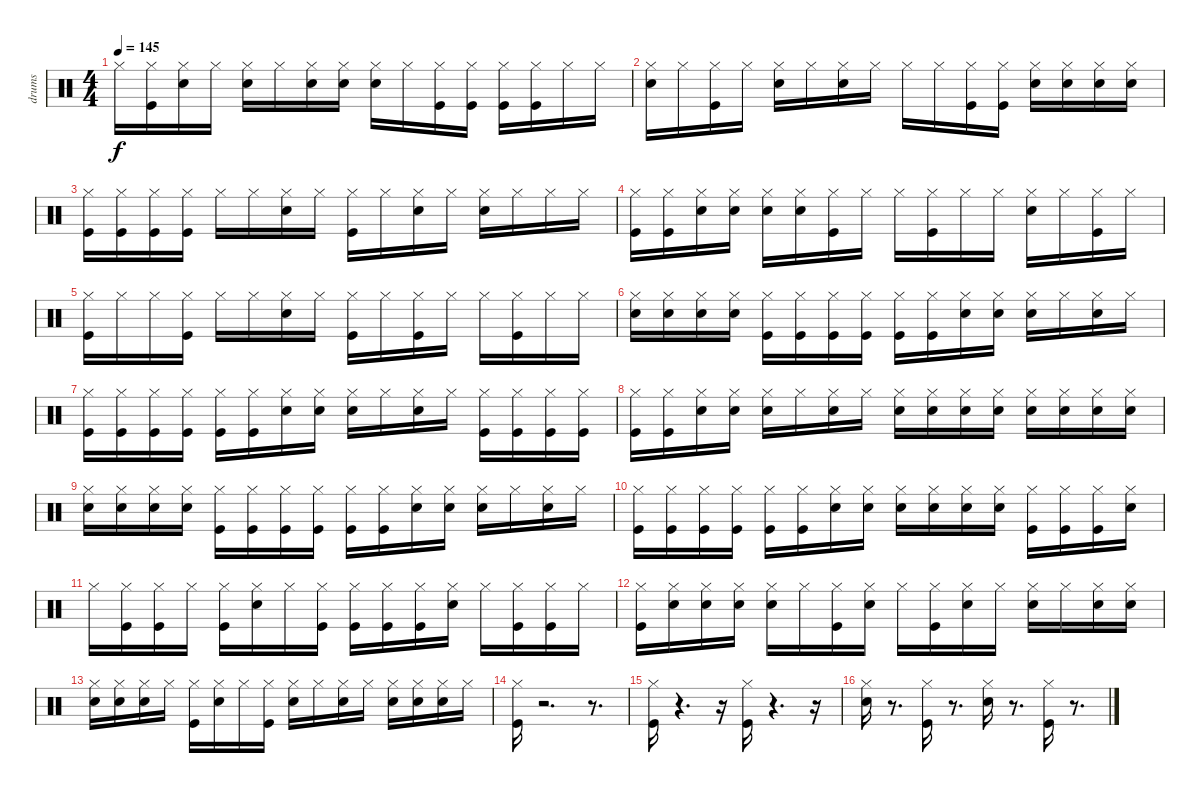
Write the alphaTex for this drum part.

\track ("drums" "drums") {instrument percussion}
\staff {score}
\articulation defaults
\ts (4 4)
\tempo 145
\clef neutral
\ks c "Hi-Hat (closed)".16{dy f}
("Kick (hit)" "Hi-Hat (closed)").16 ("Snare (hit) 2" "Hi-Hat (closed)").16 "Hi-Hat (closed)".16 ("Snare (hit) 2" "Hi-Hat (closed)").16 "Hi-Hat (closed)".16 ("Snare (hit) 2" "Hi-Hat (closed)").16 ("Snare (hit) 2" "Hi-Hat (closed)").16 ("Snare (hit) 2" "Hi-Hat (closed)").16 "Hi-Hat (closed)".16 ("Kick (hit)" "Hi-Hat (closed)").16 ("Kick (hit)" "Hi-Hat (closed)").16 ("Kick (hit)" "Hi-Hat (closed)").16 ("Kick (hit)" "Hi-Hat (closed)").16 "Hi-Hat (closed)".16 "Hi-Hat (closed)".16 |
("Snare (hit) 2" "Hi-Hat (closed)").16 "Hi-Hat (closed)".16 ("Kick (hit)" "Hi-Hat (closed)").16 "Hi-Hat (closed)".16 ("Snare (hit) 2" "Hi-Hat (closed)").16 "Hi-Hat (closed)".16 ("Snare (hit) 2" "Hi-Hat (closed)").16 "Hi-Hat (closed)".16 "Hi-Hat (closed)".16 "Hi-Hat (closed)".16 ("Kick (hit)" "Hi-Hat (closed)").16 ("Kick (hit)" "Hi-Hat (closed)").16 ("Snare (hit) 2" "Hi-Hat (closed)").16 ("Snare (hit) 2" "Hi-Hat (closed)").16 ("Snare (hit) 2" "Hi-Hat (closed)").16 ("Snare (hit) 2" "Hi-Hat (closed)").16 |
("Kick (hit)" "Hi-Hat (closed)").16 ("Kick (hit)" "Hi-Hat (closed)").16 ("Kick (hit)" "Hi-Hat (closed)").16 ("Kick (hit)" "Hi-Hat (closed)").16 "Hi-Hat (closed)".16 "Hi-Hat (closed)".16 ("Snare (hit) 2" "Hi-Hat (closed)").16 "Hi-Hat (closed)".16 ("Kick (hit)" "Hi-Hat (closed)").16 "Hi-Hat (closed)".16 ("Snare (hit) 2" "Hi-Hat (closed)").16 "Hi-Hat (closed)".16 ("Snare (hit) 2" "Hi-Hat (closed)").16 "Hi-Hat (closed)".16 "Hi-Hat (closed)".16 "Hi-Hat (closed)".16 |
("Kick (hit)" "Hi-Hat (closed)").16 ("Kick (hit)" "Hi-Hat (closed)").16 ("Snare (hit) 2" "Hi-Hat (closed)").16 ("Snare (hit) 2" "Hi-Hat (closed)").16 ("Snare (hit) 2" "Hi-Hat (closed)").16 ("Snare (hit) 2" "Hi-Hat (closed)").16 ("Hi-Hat (closed)" "Kick (hit)").16 "Hi-Hat (closed)".16 "Hi-Hat (closed)".16 ("Kick (hit)" "Hi-Hat (closed)").16 "Hi-Hat (closed)".16 "Hi-Hat (closed)".16 ("Snare (hit) 2" "Hi-Hat (closed)").16 "Hi-Hat (closed)".16 ("Kick (hit)" "Hi-Hat (closed)").16 "Hi-Hat (closed)".16 |
("Hi-Hat (closed)" "Kick (hit)").16 "Hi-Hat (closed)".16 "Hi-Hat (closed)".16 ("Kick (hit)" "Hi-Hat (closed)").16 "Hi-Hat (closed)".16 "Hi-Hat (closed)".16 ("Snare (hit) 2" "Hi-Hat (closed)").16 "Hi-Hat (closed)".16 ("Kick (hit)" "Hi-Hat (closed)").16 "Hi-Hat (closed)".16 ("Hi-Hat (closed)" "Kick (hit)").16 "Hi-Hat (closed)".16 "Hi-Hat (closed)".16 ("Kick (hit)" "Hi-Hat (closed)").16 "Hi-Hat (closed)".16 "Hi-Hat (closed)".16 |
("Hi-Hat (closed)" "Snare (hit) 2").16 ("Hi-Hat (closed)" "Snare (hit) 2").16 ("Hi-Hat (closed)" "Snare (hit) 2").16 ("Hi-Hat (closed)" "Snare (hit) 2").16 ("Hi-Hat (closed)" "Kick (hit)").16 ("Kick (hit)" "Hi-Hat (closed)").16 ("Kick (hit)" "Hi-Hat (closed)").16 ("Kick (hit)" "Hi-Hat (closed)").16 ("Kick (hit)" "Hi-Hat (closed)").16 ("Kick (hit)" "Hi-Hat (closed)").16 ("Snare (hit) 2" "Hi-Hat (closed)").16 ("Snare (hit) 2" "Hi-Hat (closed)").16 ("Snare (hit) 2" "Hi-Hat (closed)").16 "Hi-Hat (closed)".16 ("Snare (hit) 2" "Hi-Hat (closed)").16 "Hi-Hat (closed)".16 |
("Hi-Hat (closed)" "Kick (hit)").16 ("Kick (hit)" "Hi-Hat (closed)").16 ("Kick (hit)" "Hi-Hat (closed)").16 ("Kick (hit)" "Hi-Hat (closed)").16 ("Kick (hit)" "Hi-Hat (closed)").16 ("Kick (hit)" "Hi-Hat (closed)").16 ("Snare (hit) 2" "Hi-Hat (closed)").16 ("Snare (hit) 2" "Hi-Hat (closed)").16 ("Snare (hit) 2" "Hi-Hat (closed)").16 "Hi-Hat (closed)".16 ("Snare (hit) 2" "Hi-Hat (closed)").16 "Hi-Hat (closed)".16 ("Hi-Hat (closed)" "Kick (hit)").16 ("Kick (hit)" "Hi-Hat (closed)").16 ("Kick (hit)" "Hi-Hat (closed)").16 ("Kick (hit)" "Hi-Hat (closed)").16 |
("Kick (hit)" "Hi-Hat (closed)").16 ("Kick (hit)" "Hi-Hat (closed)").16 ("Snare (hit) 2" "Hi-Hat (closed)").16 ("Snare (hit) 2" "Hi-Hat (closed)").16 ("Snare (hit) 2" "Hi-Hat (closed)").16 "Hi-Hat (closed)".16 ("Snare (hit) 2" "Hi-Hat (closed)").16 "Hi-Hat (closed)".16 ("Hi-Hat (closed)" "Snare (hit) 2").16 ("Hi-Hat (closed)" "Snare (hit) 2").16 ("Hi-Hat (closed)" "Snare (hit) 2").16 ("Hi-Hat (closed)" "Snare (hit) 2").16 ("Hi-Hat (closed)" "Snare (hit) 2").16 ("Hi-Hat (closed)" "Snare (hit) 2").16 ("Hi-Hat (closed)" "Snare (hit) 2").16 ("Hi-Hat (closed)" "Snare (hit) 2").16 |
("Hi-Hat (closed)" "Snare (hit) 2").16 ("Hi-Hat (closed)" "Snare (hit) 2").16 ("Hi-Hat (closed)" "Snare (hit) 2").16 ("Hi-Hat (closed)" "Snare (hit) 2").16 ("Hi-Hat (closed)" "Kick (hit)").16 ("Kick (hit)" "Hi-Hat (closed)").16 ("Kick (hit)" "Hi-Hat (closed)").16 ("Kick (hit)" "Hi-Hat (closed)").16 ("Kick (hit)" "Hi-Hat (closed)").16 ("Kick (hit)" "Hi-Hat (closed)").16 ("Snare (hit) 2" "Hi-Hat (closed)").16 ("Snare (hit) 2" "Hi-Hat (closed)").16 ("Snare (hit) 2" "Hi-Hat (closed)").16 "Hi-Hat (closed)".16 ("Snare (hit) 2" "Hi-Hat (closed)").16 "Hi-Hat (closed)".16 |
("Hi-Hat (closed)" "Kick (hit)").16 ("Kick (hit)" "Hi-Hat (closed)").16 ("Kick (hit)" "Hi-Hat (closed)").16 ("Kick (hit)" "Hi-Hat (closed)").16 ("Kick (hit)" "Hi-Hat (closed)").16 ("Kick (hit)" "Hi-Hat (closed)").16 ("Hi-Hat (closed)" "Snare (hit) 2").16 ("Hi-Hat (closed)" "Snare (hit) 2").16 ("Hi-Hat (closed)" "Snare (hit) 2").16 ("Hi-Hat (closed)" "Snare (hit) 2").16 ("Hi-Hat (closed)" "Snare (hit) 2").16 ("Hi-Hat (closed)" "Snare (hit) 2").16 ("Hi-Hat (closed)" "Kick (hit)").16 ("Kick (hit)" "Hi-Hat (closed)").16 ("Kick (hit)" "Hi-Hat (closed)").16 ("Snare (hit) 2" "Hi-Hat (closed)").16 |
"Hi-Hat (closed)".16 ("Kick (hit)" "Hi-Hat (closed)").16 ("Kick (hit)" "Hi-Hat (closed)").16 "Hi-Hat (closed)".16 ("Kick (hit)" "Hi-Hat (closed)").16 ("Snare (hit) 2" "Hi-Hat (closed)").16 "Hi-Hat (closed)".16 ("Kick (hit)" "Hi-Hat (closed)").16 ("Hi-Hat (closed)" "Kick (hit)").16 ("Kick (hit)" "Hi-Hat (closed)").16 ("Kick (hit)" "Hi-Hat (closed)").16 ("Snare (hit) 2" "Hi-Hat (closed)").16 "Hi-Hat (closed)".16 ("Kick (hit)" "Hi-Hat (closed)").16 ("Kick (hit)" "Hi-Hat (closed)").16 "Hi-Hat (closed)".16 |
("Kick (hit)" "Hi-Hat (closed)").16 ("Hi-Hat (closed)" "Snare (hit) 2").16 ("Hi-Hat (closed)" "Snare (hit) 2").16 ("Hi-Hat (closed)" "Snare (hit) 2").16 ("Snare (hit) 2" "Hi-Hat (closed)").16 "Hi-Hat (closed)".16 ("Kick (hit)" "Hi-Hat (closed)").16 ("Snare (hit) 2" "Hi-Hat (closed)").16 "Hi-Hat (closed)".16 ("Kick (hit)" "Hi-Hat (closed)").16 ("Snare (hit) 2" "Hi-Hat (closed)").16 "Hi-Hat (closed)".16 ("Snare (hit) 2" "Hi-Hat (closed)").16 "Hi-Hat (closed)".16 ("Snare (hit) 2" "Hi-Hat (closed)").16 ("Snare (hit) 2" "Hi-Hat (closed)").16 |
("Snare (hit) 2" "Hi-Hat (closed)").16 ("Snare (hit) 2" "Hi-Hat (closed)").16 ("Snare (hit) 2" "Hi-Hat (closed)").16 "Hi-Hat (closed)".16 ("Kick (hit)" "Hi-Hat (closed)").16 ("Snare (hit) 2" "Hi-Hat (closed)").16 "Hi-Hat (closed)".16 ("Kick (hit)" "Hi-Hat (closed)").16 ("Snare (hit) 2" "Hi-Hat (closed)").16 "Hi-Hat (closed)".16 ("Snare (hit) 2" "Hi-Hat (closed)").16 "Hi-Hat (closed)".16 ("Snare (hit) 2" "Hi-Hat (closed)").16 ("Snare (hit) 2" "Hi-Hat (closed)").16 ("Snare (hit) 2" "Hi-Hat (closed)").16 "Hi-Hat (closed)".16 |
("Hi-Hat (closed)" "Kick (hit)").16 r.2{d} r.8{d} |
("Hi-Hat (closed)" "Kick (hit)").16 r.4{d} r.16 ("Hi-Hat (closed)" "Kick (hit)").16 r.4{d} r.16 |
("Hi-Hat (closed)" "Snare (hit) 2").16 r.8{d} ("Hi-Hat (closed)" "Kick (hit)").16 r.8{d} ("Hi-Hat (closed)" "Snare (hit) 2").16 r.8{d} ("Hi-Hat (closed)" "Kick (hit)").16 r.8{d}
